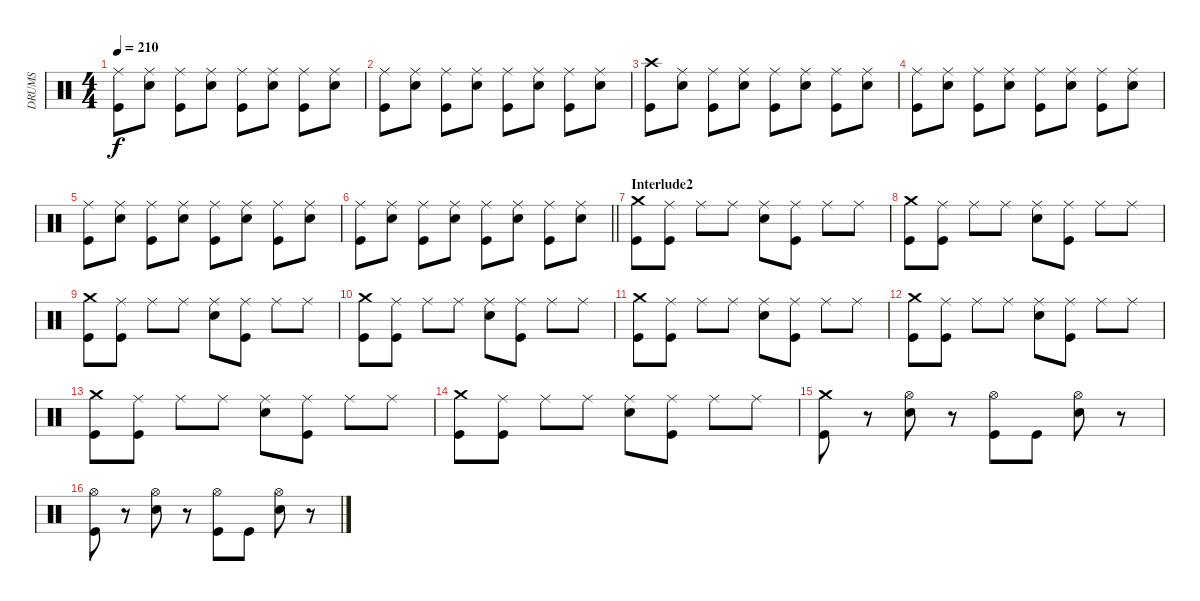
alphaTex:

\track ("DRUMS" "DRUMS") {instrument percussion}
\staff {score}
\articulation defaults
\ts (4 4)
\tempo 210
\clef neutral
\ks c
("Ride (middle)" "Kick (hit)").8{dy f} ("Ride (middle)" "Snare (hit) 2").8 ("Ride (middle)" "Kick (hit)").8 ("Ride (middle)" "Snare (hit) 2").8 ("Ride (middle)" "Kick (hit)").8 ("Ride (middle)" "Snare (hit) 2").8 ("Ride (middle)" "Kick (hit)").8 ("Ride (middle)" "Snare (hit) 2").8 |
("Ride (middle)" "Kick (hit)").8 ("Ride (middle)" "Snare (hit) 2").8 ("Ride (middle)" "Kick (hit)").8 ("Ride (middle)" "Snare (hit) 2").8 ("Ride (middle)" "Kick (hit)").8 ("Ride (middle)" "Snare (hit) 2").8 ("Ride (middle)" "Kick (hit)").8 ("Ride (middle)" "Snare (hit) 2").8 |
("Crash high (hit)" "Kick (hit)").8 ("Ride (middle)" "Snare (hit) 2").8 ("Ride (middle)" "Kick (hit)").8 ("Ride (middle)" "Snare (hit) 2").8 ("Ride (middle)" "Kick (hit)").8 ("Ride (middle)" "Snare (hit) 2").8 ("Ride (middle)" "Kick (hit)").8 ("Ride (middle)" "Snare (hit) 2").8 |
("Ride (middle)" "Kick (hit)").8 ("Ride (middle)" "Snare (hit) 2").8 ("Ride (middle)" "Kick (hit)").8 ("Ride (middle)" "Snare (hit) 2").8 ("Ride (middle)" "Kick (hit)").8 ("Ride (middle)" "Snare (hit) 2").8 ("Ride (middle)" "Kick (hit)").8 ("Ride (middle)" "Snare (hit) 2").8 |
("Ride (middle)" "Kick (hit)").8 ("Ride (middle)" "Snare (hit) 2").8 ("Ride (middle)" "Kick (hit)").8 ("Ride (middle)" "Snare (hit) 2").8 ("Ride (middle)" "Kick (hit)").8 ("Ride (middle)" "Snare (hit) 2").8 ("Ride (middle)" "Kick (hit)").8 ("Ride (middle)" "Snare (hit) 2").8 |
\barLineRight lightlight
("Ride (middle)" "Kick (hit)").8 ("Ride (middle)" "Snare (hit) 2").8 ("Ride (middle)" "Kick (hit)").8 ("Ride (middle)" "Snare (hit) 2").8 ("Ride (middle)" "Kick (hit)").8 ("Ride (middle)" "Snare (hit) 2").8 ("Ride (middle)" "Kick (hit)").8 ("Ride (middle)" "Snare (hit) 2").8 |
\section ("" "Interlude2")
("Crash medium (hit)" "Kick (hit)").8 ("Ride (middle)" "Kick (hit)").8 "Ride (middle)".8 "Ride (middle)".8 ("Ride (middle)" "Snare (hit) 2").8 ("Ride (middle)" "Kick (hit)").8 "Ride (middle)".8 "Ride (middle)".8 |
("Crash medium (hit)" "Kick (hit)").8 ("Ride (middle)" "Kick (hit)").8 "Ride (middle)".8 "Ride (middle)".8 ("Ride (middle)" "Snare (hit) 2").8 ("Ride (middle)" "Kick (hit)").8 "Ride (middle)".8 "Ride (middle)".8 |
("Crash medium (hit)" "Kick (hit)").8 ("Ride (middle)" "Kick (hit)").8 "Ride (middle)".8 "Ride (middle)".8 ("Ride (middle)" "Snare (hit) 2").8 ("Ride (middle)" "Kick (hit)").8 "Ride (middle)".8 "Ride (middle)".8 |
("Crash medium (hit)" "Kick (hit)").8 ("Ride (middle)" "Kick (hit)").8 "Ride (middle)".8 "Ride (middle)".8 ("Ride (middle)" "Snare (hit) 2").8 ("Ride (middle)" "Kick (hit)").8 "Ride (middle)".8 "Ride (middle)".8 |
("Crash medium (hit)" "Kick (hit)").8 ("Ride (middle)" "Kick (hit)").8 "Ride (middle)".8 "Ride (middle)".8 ("Ride (middle)" "Snare (hit) 2").8 ("Ride (middle)" "Kick (hit)").8 "Ride (middle)".8 "Ride (middle)".8 |
("Crash medium (hit)" "Kick (hit)").8 ("Ride (middle)" "Kick (hit)").8 "Ride (middle)".8 "Ride (middle)".8 ("Ride (middle)" "Snare (hit) 2").8 ("Ride (middle)" "Kick (hit)").8 "Ride (middle)".8 "Ride (middle)".8 |
("Crash medium (hit)" "Kick (hit)").8 ("Ride (middle)" "Kick (hit)").8 "Ride (middle)".8 "Ride (middle)".8 ("Ride (middle)" "Snare (hit) 2").8 ("Ride (middle)" "Kick (hit)").8 "Ride (middle)".8 "Ride (middle)".8 |
("Crash medium (hit)" "Kick (hit)").8 ("Ride (middle)" "Kick (hit)").8 "Ride (middle)".8 "Ride (middle)".8 ("Ride (middle)" "Snare (hit) 2").8 ("Ride (middle)" "Kick (hit)").8 "Ride (middle)".8 "Ride (middle)".8 |
("Crash medium (hit)" "Kick (hit)").8 r.8 ("Hi-Hat (open)" "Snare (hit) 2").8 r.8 ("Hi-Hat (open)" "Kick (hit)").8 "Kick (hit)".8 ("Hi-Hat (open)" "Snare (hit) 2").8 r.8 |
("Hi-Hat (open)" "Kick (hit)").8 r.8 ("Hi-Hat (open)" "Snare (hit) 2").8 r.8 ("Hi-Hat (open)" "Kick (hit)").8 "Kick (hit)".8 ("Hi-Hat (open)" "Snare (hit) 2").8 r.8
